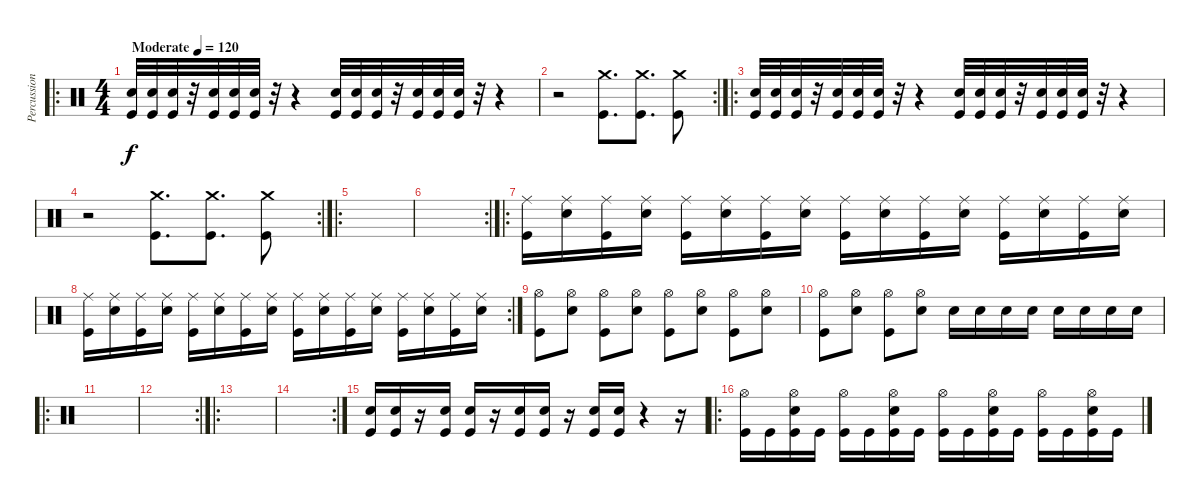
\track ("Percussion" "Percussion") {instrument percussion}
\staff {score}
\articulation defaults
\ro
\ts (4 4)
\tempo (120 "Moderate")
\clef neutral
\ks c
("Snare (hit) 2" "Kick (hit)").32{dy f} ("Snare (hit) 2" "Kick (hit)").32 ("Snare (hit) 2" "Kick (hit)").32 r.32 ("Snare (hit) 2" "Kick (hit)").32 ("Snare (hit) 2" "Kick (hit)").32 ("Snare (hit) 2" "Kick (hit)").32 r.32 r.4 ("Snare (hit) 2" "Kick (hit)").32 ("Snare (hit) 2" "Kick (hit)").32 ("Snare (hit) 2" "Kick (hit)").32 r.32 ("Snare (hit) 2" "Kick (hit)").32 ("Snare (hit) 2" "Kick (hit)").32 ("Snare (hit) 2" "Kick (hit)").32 r.32 r.4 |
\rc 2
r.2 ("Crash medium (hit)" "Kick (hit)").8{d} ("Crash medium (hit)" "Kick (hit)").8{d} ("Crash medium (hit)" "Kick (hit)").8 |
\ro
("Snare (hit) 2" "Kick (hit)").32 ("Snare (hit) 2" "Kick (hit)").32 ("Snare (hit) 2" "Kick (hit)").32 r.32 ("Snare (hit) 2" "Kick (hit)").32 ("Snare (hit) 2" "Kick (hit)").32 ("Snare (hit) 2" "Kick (hit)").32 r.32 r.4 ("Snare (hit) 2" "Kick (hit)").32 ("Snare (hit) 2" "Kick (hit)").32 ("Snare (hit) 2" "Kick (hit)").32 r.32 ("Snare (hit) 2" "Kick (hit)").32 ("Snare (hit) 2" "Kick (hit)").32 ("Snare (hit) 2" "Kick (hit)").32 r.32 r.4 |
\rc 2
r.2 ("Crash medium (hit)" "Kick (hit)").8{d} ("Crash medium (hit)" "Kick (hit)").8{d} ("Crash medium (hit)" "Kick (hit)").8 |
\ro
|
\rc 2
|
\ro
("Ride (middle)" "Kick (hit)").16 ("Ride (middle)" "Snare (hit) 2").16 ("Ride (middle)" "Kick (hit)").16 ("Ride (middle)" "Snare (hit) 2").16 ("Ride (middle)" "Kick (hit)").16 ("Ride (middle)" "Snare (hit) 2").16 ("Ride (middle)" "Kick (hit)").16 ("Ride (middle)" "Snare (hit) 2").16 ("Ride (middle)" "Kick (hit)").16 ("Ride (middle)" "Snare (hit) 2").16 ("Ride (middle)" "Kick (hit)").16 ("Ride (middle)" "Snare (hit) 2").16 ("Ride (middle)" "Kick (hit)").16 ("Ride (middle)" "Snare (hit) 2").16 ("Ride (middle)" "Kick (hit)").16 ("Ride (middle)" "Snare (hit) 2").16 |
\rc 2
("Ride (middle)" "Kick (hit)").16 ("Ride (middle)" "Snare (hit) 2").16 ("Ride (middle)" "Kick (hit)").16 ("Ride (middle)" "Snare (hit) 2").16 ("Ride (middle)" "Kick (hit)").16 ("Ride (middle)" "Snare (hit) 2").16 ("Ride (middle)" "Kick (hit)").16 ("Ride (middle)" "Snare (hit) 2").16 ("Ride (middle)" "Kick (hit)").16 ("Ride (middle)" "Snare (hit) 2").16 ("Ride (middle)" "Kick (hit)").16 ("Ride (middle)" "Snare (hit) 2").16 ("Ride (middle)" "Kick (hit)").16 ("Ride (middle)" "Snare (hit) 2").16 ("Ride (middle)" "Kick (hit)").16 ("Ride (middle)" "Snare (hit) 2").16 |
("Hi-Hat (open)" "Kick (hit)").8 ("Hi-Hat (open)" "Snare (hit) 2").8 ("Hi-Hat (open)" "Kick (hit)").8 ("Hi-Hat (open)" "Snare (hit) 2").8 ("Hi-Hat (open)" "Kick (hit)").8 ("Hi-Hat (open)" "Snare (hit) 2").8 ("Hi-Hat (open)" "Kick (hit)").8 ("Hi-Hat (open)" "Snare (hit) 2").8 |
("Hi-Hat (open)" "Kick (hit)").8 ("Hi-Hat (open)" "Snare (hit) 2").8 ("Hi-Hat (open)" "Kick (hit)").8 ("Hi-Hat (open)" "Snare (hit) 2").8 "Snare (hit) 2".16 "Snare (hit) 2".16 "Snare (hit) 2".16 "Snare (hit) 2".16 "Snare (hit) 2".16 "Snare (hit) 2".16 "Snare (hit) 2".16 "Snare (hit) 2".16 |
\ro
|
\rc 2
|
\ro
|
\rc 2
|
("Snare (hit) 2" "Kick (hit)").16 ("Snare (hit) 2" "Kick (hit)").16 r.16 ("Snare (hit) 2" "Kick (hit)").16 ("Snare (hit) 2" "Kick (hit)").16 r.16 ("Snare (hit) 2" "Kick (hit)").16 ("Snare (hit) 2" "Kick (hit)").16 r.16 ("Snare (hit) 2" "Kick (hit)").16 ("Snare (hit) 2" "Kick (hit)").16 r.4 r.16 |
\ro
("Hi-Hat (open)" "Kick (hit)").16 "Kick (hit)".16 ("Hi-Hat (open)" "Snare (hit) 2" "Kick (hit)").16 "Kick (hit)".16 ("Hi-Hat (open)" "Kick (hit)").16 "Kick (hit)".16 ("Hi-Hat (open)" "Snare (hit) 2" "Kick (hit)").16 "Kick (hit)".16 ("Hi-Hat (open)" "Kick (hit)").16 "Kick (hit)".16 ("Hi-Hat (open)" "Snare (hit) 2" "Kick (hit)").16 "Kick (hit)".16 ("Hi-Hat (open)" "Kick (hit)").16 "Kick (hit)".16 ("Hi-Hat (open)" "Snare (hit) 2" "Kick (hit)").16 "Kick (hit)".16
